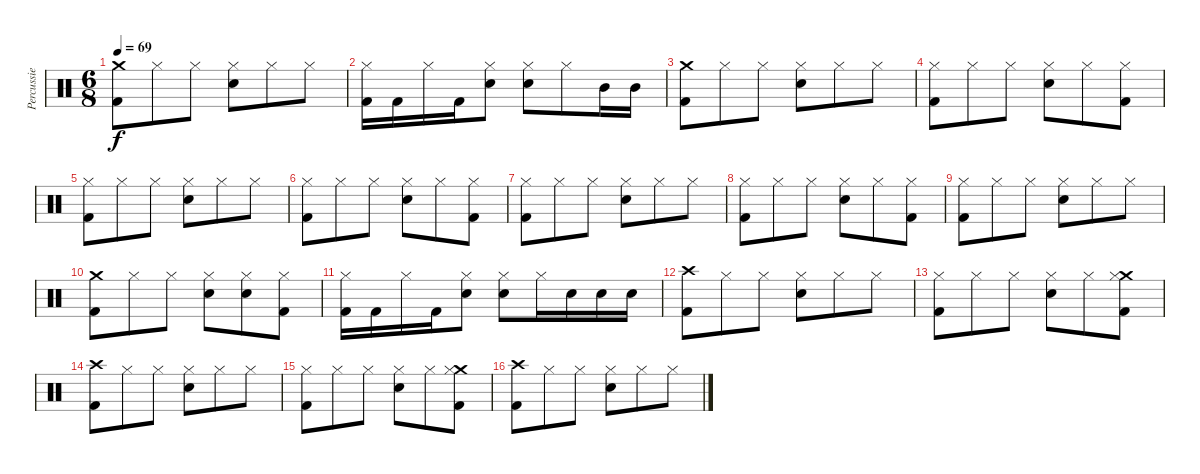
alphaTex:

\track ("Percussie" "Percussie") {instrument percussion}
\staff {score}
\articulation defaults
\ts (6 8)
\tempo 69
\clef neutral
\ks c
("Crash medium (hit)" "Kick (hit) 2").8{dy f} "Hi-Hat (closed)".8 "Hi-Hat (closed)".8 ("Hi-Hat (closed)" "Snare (hit) 2").8 "Hi-Hat (closed)".8 "Hi-Hat (closed)".8 |
("Hi-Hat (closed)" "Kick (hit) 2").16 "Kick (hit) 2".16 "Hi-Hat (closed)".16 "Kick (hit) 2".16 ("Hi-Hat (closed)" "Snare (hit) 2").8 ("Hi-Hat (closed)" "Snare (hit) 2").8 "Hi-Hat (closed)".8 "Mid Tom (hit)".16 "Mid Tom (hit)".16 |
("Crash medium (hit)" "Kick (hit) 2").8 "Hi-Hat (closed)".8 "Hi-Hat (closed)".8 ("Hi-Hat (closed)" "Snare (hit) 2").8 "Hi-Hat (closed)".8 "Hi-Hat (closed)".8 |
("Hi-Hat (closed)" "Kick (hit) 2").8 "Hi-Hat (closed)".8 "Hi-Hat (closed)".8 ("Hi-Hat (closed)" "Snare (hit) 2").8 "Hi-Hat (closed)".8 ("Hi-Hat (closed)" "Kick (hit) 2").8 |
("Hi-Hat (closed)" "Kick (hit) 2").8 "Hi-Hat (closed)".8 "Hi-Hat (closed)".8 ("Hi-Hat (closed)" "Snare (hit) 2").8 "Hi-Hat (closed)".8 "Hi-Hat (closed)".8 |
("Hi-Hat (closed)" "Kick (hit) 2").8 "Hi-Hat (closed)".8 "Hi-Hat (closed)".8 ("Hi-Hat (closed)" "Snare (hit) 2").8 "Hi-Hat (closed)".8 ("Hi-Hat (closed)" "Kick (hit) 2").8 |
("Hi-Hat (closed)" "Kick (hit) 2").8 "Hi-Hat (closed)".8 "Hi-Hat (closed)".8 ("Hi-Hat (closed)" "Snare (hit) 2").8 "Hi-Hat (closed)".8 "Hi-Hat (closed)".8 |
("Hi-Hat (closed)" "Kick (hit) 2").8 "Hi-Hat (closed)".8 "Hi-Hat (closed)".8 ("Hi-Hat (closed)" "Snare (hit) 2").8 "Hi-Hat (closed)".8 ("Hi-Hat (closed)" "Kick (hit) 2").8 |
("Hi-Hat (closed)" "Kick (hit) 2").8 "Hi-Hat (closed)".8 "Hi-Hat (closed)".8 ("Hi-Hat (closed)" "Snare (hit) 2").8 "Hi-Hat (closed)".8 "Hi-Hat (closed)".8 |
("Crash medium (hit)" "Kick (hit) 2").8 "Hi-Hat (closed)".8 "Hi-Hat (closed)".8 ("Hi-Hat (closed)" "Snare (hit) 2").8 ("Hi-Hat (closed)" "Snare (hit) 2").8 ("Hi-Hat (closed)" "Kick (hit) 2").8 |
("Hi-Hat (closed)" "Kick (hit) 2").16 "Kick (hit) 2".16 "Hi-Hat (closed)".16 "Kick (hit) 2".16 ("Hi-Hat (closed)" "Snare (hit) 2").8 ("Hi-Hat (closed)" "Snare (hit) 2").8 "Hi-Hat (closed)".16 "Snare (hit) 2".16 "Snare (hit) 2".16 "Snare (hit) 2".16 |
("Crash high (hit)" "Kick (hit) 2").8 "Hi-Hat (closed)".8 "Hi-Hat (closed)".8 ("Hi-Hat (closed)" "Snare (hit) 2").8 "Hi-Hat (closed)".8 "Hi-Hat (closed)".8 |
("Hi-Hat (closed)" "Kick (hit) 2").8 "Hi-Hat (closed)".8 "Hi-Hat (closed)".8 ("Hi-Hat (closed)" "Snare (hit) 2").8 "Hi-Hat (closed)".8 ("Crash medium (hit)" "Hi-Hat (closed)" "Kick (hit) 2").8 |
("Crash high (hit)" "Kick (hit) 2").8 "Hi-Hat (closed)".8 "Hi-Hat (closed)".8 ("Hi-Hat (closed)" "Snare (hit) 2").8 "Hi-Hat (closed)".8 "Hi-Hat (closed)".8 |
("Hi-Hat (closed)" "Kick (hit) 2").8 "Hi-Hat (closed)".8 "Hi-Hat (closed)".8 ("Hi-Hat (closed)" "Snare (hit) 2").8 "Hi-Hat (closed)".8 ("Crash medium (hit)" "Hi-Hat (closed)" "Kick (hit) 2").8 |
("Crash high (hit)" "Kick (hit) 2").8 "Hi-Hat (closed)".8 "Hi-Hat (closed)".8 ("Hi-Hat (closed)" "Snare (hit) 2").8 "Hi-Hat (closed)".8 "Hi-Hat (closed)".8
